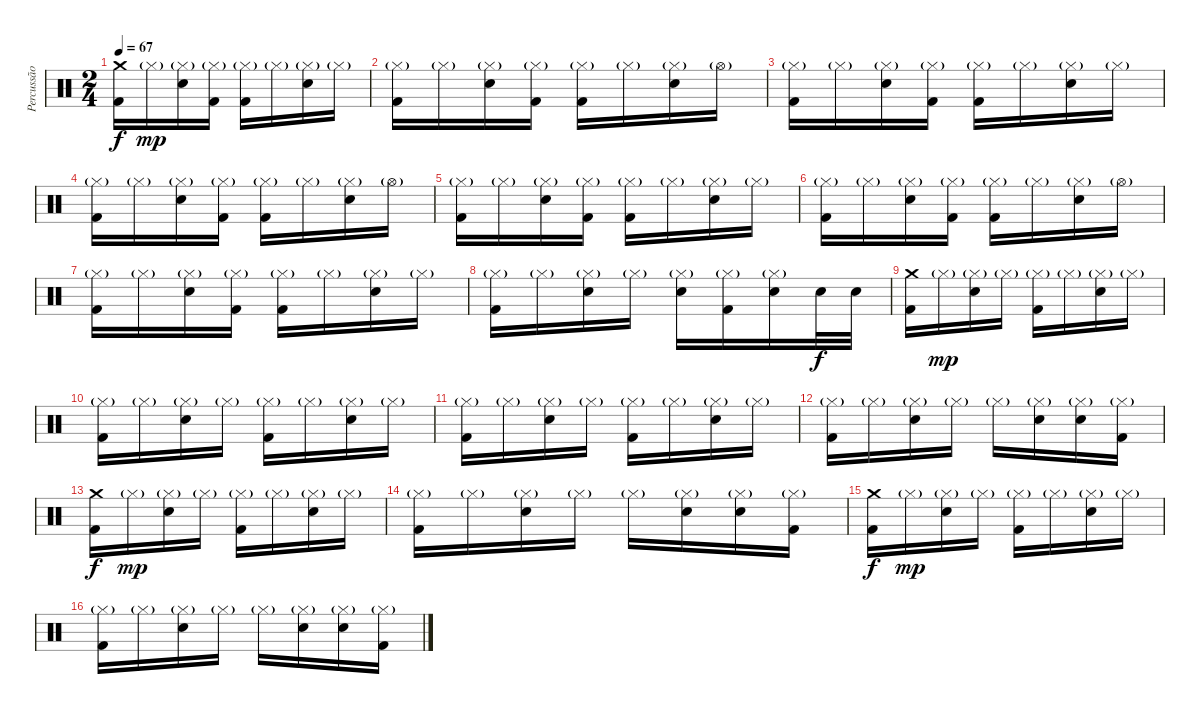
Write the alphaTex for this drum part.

\track ("Percussão" "Percussão") {instrument percussion}
\staff {score}
\articulation defaults
\ts (2 4)
\tempo 67
\clef neutral
\ks c
("Crash medium (hit)" "Kick (hit) 2").16{dy f} "Hi-Hat (closed)"{g}.16{dy mp} ("Hi-Hat (closed)"{g} "Snare (hit) 2").16 ("Hi-Hat (closed)"{g} "Kick (hit) 2").16 ("Hi-Hat (closed)"{g} "Kick (hit) 2").16 "Hi-Hat (closed)"{g}.16 ("Hi-Hat (closed)"{g} "Snare (hit) 2").16 "Hi-Hat (closed)"{g}.16 |
("Hi-Hat (closed)"{g} "Kick (hit) 2").16 "Hi-Hat (closed)"{g}.16 ("Hi-Hat (closed)"{g} "Snare (hit) 2").16 ("Hi-Hat (closed)"{g} "Kick (hit) 2").16 ("Hi-Hat (closed)"{g} "Kick (hit) 2").16 "Hi-Hat (closed)"{g}.16 ("Hi-Hat (closed)"{g} "Snare (hit) 2").16 "Hi-Hat (open)"{g}.16 |
("Hi-Hat (closed)"{g} "Kick (hit) 2").16 "Hi-Hat (closed)"{g}.16 ("Hi-Hat (closed)"{g} "Snare (hit) 2").16 ("Hi-Hat (closed)"{g} "Kick (hit) 2").16 ("Hi-Hat (closed)"{g} "Kick (hit) 2").16 "Hi-Hat (closed)"{g}.16 ("Hi-Hat (closed)"{g} "Snare (hit) 2").16 "Hi-Hat (closed)"{g}.16 |
("Hi-Hat (closed)"{g} "Kick (hit) 2").16 "Hi-Hat (closed)"{g}.16 ("Hi-Hat (closed)"{g} "Snare (hit) 2").16 ("Hi-Hat (closed)"{g} "Kick (hit) 2").16 ("Hi-Hat (closed)"{g} "Kick (hit) 2").16 "Hi-Hat (closed)"{g}.16 ("Hi-Hat (closed)"{g} "Snare (hit) 2").16 "Hi-Hat (open)"{g}.16 |
("Hi-Hat (closed)"{g} "Kick (hit) 2").16 "Hi-Hat (closed)"{g}.16 ("Hi-Hat (closed)"{g} "Snare (hit) 2").16 ("Hi-Hat (closed)"{g} "Kick (hit) 2").16 ("Hi-Hat (closed)"{g} "Kick (hit) 2").16 "Hi-Hat (closed)"{g}.16 ("Hi-Hat (closed)"{g} "Snare (hit) 2").16 "Hi-Hat (closed)"{g}.16 |
("Hi-Hat (closed)"{g} "Kick (hit) 2").16 "Hi-Hat (closed)"{g}.16 ("Hi-Hat (closed)"{g} "Snare (hit) 2").16 ("Hi-Hat (closed)"{g} "Kick (hit) 2").16 ("Hi-Hat (closed)"{g} "Kick (hit) 2").16 "Hi-Hat (closed)"{g}.16 ("Hi-Hat (closed)"{g} "Snare (hit) 2").16 "Hi-Hat (open)"{g}.16 |
("Hi-Hat (closed)"{g} "Kick (hit) 2").16 "Hi-Hat (closed)"{g}.16 ("Hi-Hat (closed)"{g} "Snare (hit) 2").16 ("Hi-Hat (closed)"{g} "Kick (hit) 2").16 ("Hi-Hat (closed)"{g} "Kick (hit) 2").16 "Hi-Hat (closed)"{g}.16 ("Hi-Hat (closed)"{g} "Snare (hit) 2").16 "Hi-Hat (closed)"{g}.16 |
("Hi-Hat (closed)"{g} "Kick (hit) 2").16 "Hi-Hat (closed)"{g}.16 ("Hi-Hat (closed)"{g} "Snare (hit) 2").16 "Hi-Hat (closed)"{g}.16 ("Hi-Hat (closed)"{g} "Snare (hit) 2").16 ("Hi-Hat (closed)"{g} "Kick (hit) 2").16 ("Hi-Hat (closed)"{g} "Snare (hit) 2").16 "Snare (hit) 2".32{dy f} "Snare (hit) 2".32 |
("Crash medium (hit)" "Kick (hit) 2").16 "Hi-Hat (closed)"{g}.16{dy mp} ("Hi-Hat (closed)"{g} "Snare (hit) 2").16 "Hi-Hat (closed)"{g}.16 ("Hi-Hat (closed)"{g} "Kick (hit) 2").16 "Hi-Hat (closed)"{g}.16 ("Hi-Hat (closed)"{g} "Snare (hit) 2").16 "Hi-Hat (closed)"{g}.16 |
("Hi-Hat (closed)"{g} "Kick (hit) 2").16 "Hi-Hat (closed)"{g}.16 ("Hi-Hat (closed)"{g} "Snare (hit) 2").16 "Hi-Hat (closed)"{g}.16 ("Hi-Hat (closed)"{g} "Kick (hit) 2").16 "Hi-Hat (closed)"{g}.16 ("Hi-Hat (closed)"{g} "Snare (hit) 2").16 "Hi-Hat (closed)"{g}.16 |
("Hi-Hat (closed)"{g} "Kick (hit) 2").16 "Hi-Hat (closed)"{g}.16 ("Hi-Hat (closed)"{g} "Snare (hit) 2").16 "Hi-Hat (closed)"{g}.16 ("Hi-Hat (closed)"{g} "Kick (hit) 2").16 "Hi-Hat (closed)"{g}.16 ("Hi-Hat (closed)"{g} "Snare (hit) 2").16 "Hi-Hat (closed)"{g}.16 |
("Hi-Hat (closed)"{g} "Kick (hit) 2").16 "Hi-Hat (closed)"{g}.16 ("Hi-Hat (closed)"{g} "Snare (hit) 2").16 "Hi-Hat (closed)"{g}.16 "Hi-Hat (closed)"{g}.16 ("Hi-Hat (closed)"{g} "Snare (hit) 2").16 ("Hi-Hat (closed)"{g} "Snare (hit) 2").16 ("Hi-Hat (closed)"{g} "Kick (hit) 2").16 |
("Crash medium (hit)" "Kick (hit) 2").16{dy f} "Hi-Hat (closed)"{g}.16{dy mp} ("Hi-Hat (closed)"{g} "Snare (hit) 2").16 "Hi-Hat (closed)"{g}.16 ("Hi-Hat (closed)"{g} "Kick (hit) 2").16 "Hi-Hat (closed)"{g}.16 ("Hi-Hat (closed)"{g} "Snare (hit) 2").16 "Hi-Hat (closed)"{g}.16 |
("Hi-Hat (closed)"{g} "Kick (hit) 2").16 "Hi-Hat (closed)"{g}.16 ("Hi-Hat (closed)"{g} "Snare (hit) 2").16 "Hi-Hat (closed)"{g}.16 "Hi-Hat (closed)"{g}.16 ("Hi-Hat (closed)"{g} "Snare (hit) 2").16 ("Hi-Hat (closed)"{g} "Snare (hit) 2").16 ("Hi-Hat (closed)"{g} "Kick (hit) 2").16 |
("Crash medium (hit)" "Kick (hit) 2").16{dy f} "Hi-Hat (closed)"{g}.16{dy mp} ("Hi-Hat (closed)"{g} "Snare (hit) 2").16 "Hi-Hat (closed)"{g}.16 ("Hi-Hat (closed)"{g} "Kick (hit) 2").16 "Hi-Hat (closed)"{g}.16 ("Hi-Hat (closed)"{g} "Snare (hit) 2").16 "Hi-Hat (closed)"{g}.16 |
("Hi-Hat (closed)"{g} "Kick (hit) 2").16 "Hi-Hat (closed)"{g}.16 ("Hi-Hat (closed)"{g} "Snare (hit) 2").16 "Hi-Hat (closed)"{g}.16 "Hi-Hat (closed)"{g}.16 ("Hi-Hat (closed)"{g} "Snare (hit) 2").16 ("Hi-Hat (closed)"{g} "Snare (hit) 2").16 ("Hi-Hat (closed)"{g} "Kick (hit) 2").16
